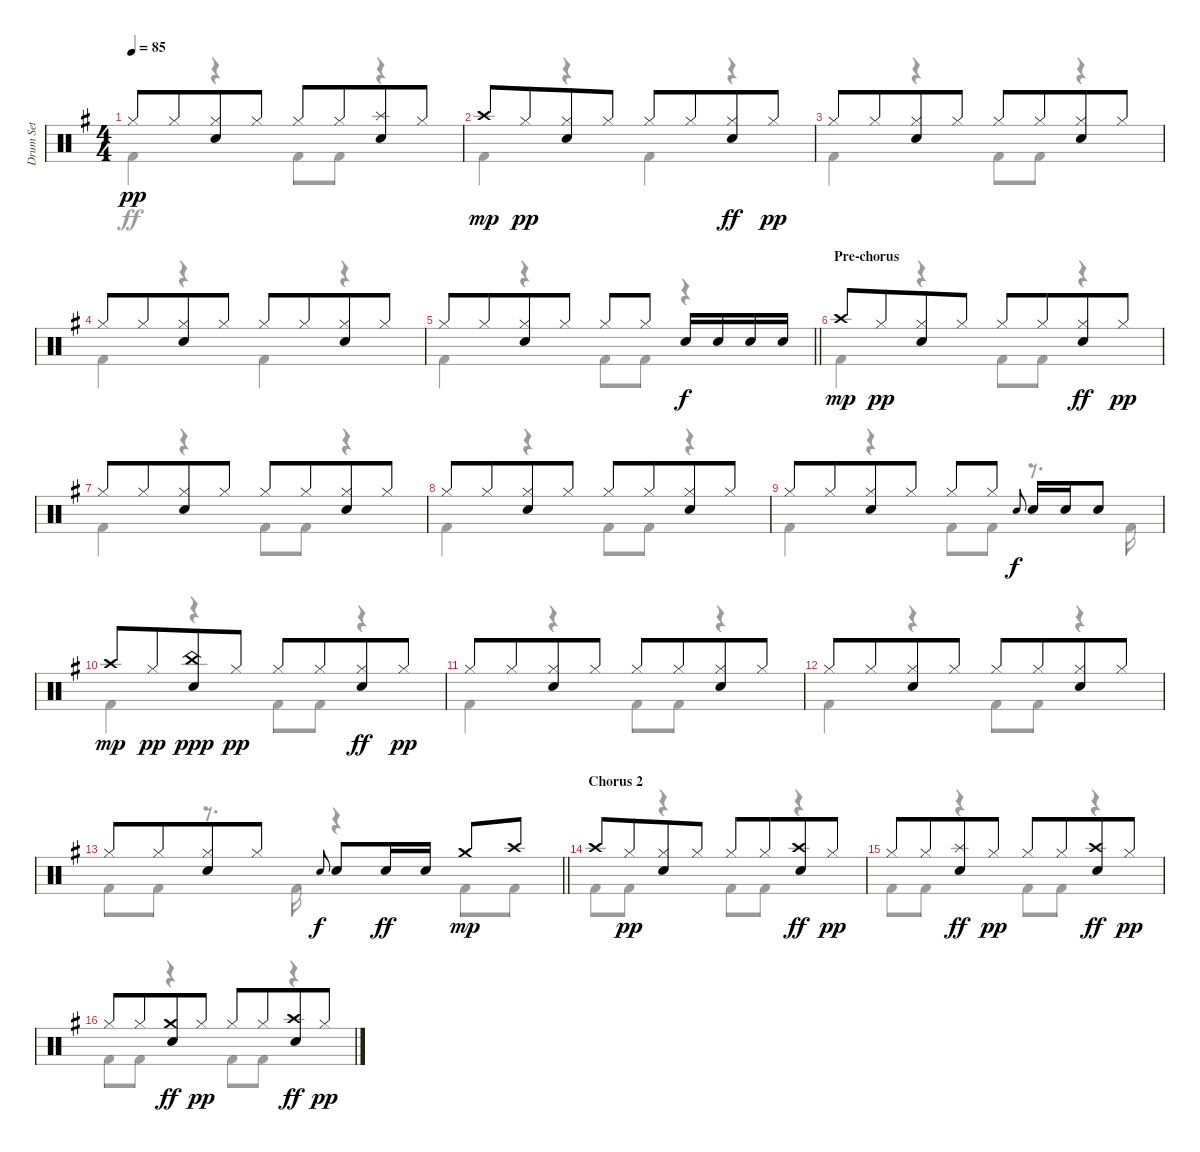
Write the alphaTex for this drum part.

\track ("Drum Set" "Drum Set") {instrument percussion}
\staff {score}
\articulation defaults
\voice
\ts (4 4)
\tempo 85
\clef neutral
\ks g "Hi-Hat (closed)".8{dy pp} "Hi-Hat (closed)".8{beam merge}
("Hi-Hat (closed)" "Electric Snare (hit)").8 "Hi-Hat (closed)".8 "Hi-Hat (closed)".8 "Hi-Hat (closed)".8{beam merge} ("Splash (hit)" "Electric Snare (hit)").8 "Hi-Hat (closed)".8 |
"Crash high (hit)".8{dy mp} "Hi-Hat (closed)".8{dy pp beam merge} ("Hi-Hat (closed)" "Electric Snare (hit)").8 "Hi-Hat (closed)".8 "Hi-Hat (closed)".8 "Hi-Hat (closed)".8{beam merge} ("Hi-Hat (closed)" "Electric Snare (hit)").8{dy ff} "Hi-Hat (closed)".8{dy pp} |
"Hi-Hat (closed)".8 "Hi-Hat (closed)".8{beam merge} ("Hi-Hat (closed)" "Electric Snare (hit)").8 "Hi-Hat (closed)".8 "Hi-Hat (closed)".8 "Hi-Hat (closed)".8{beam merge} ("Hi-Hat (closed)" "Electric Snare (hit)").8 "Hi-Hat (closed)".8 |
"Hi-Hat (closed)".8 "Hi-Hat (closed)".8{beam merge} ("Hi-Hat (closed)" "Electric Snare (hit)").8 "Hi-Hat (closed)".8 "Hi-Hat (closed)".8 "Hi-Hat (closed)".8{beam merge} ("Hi-Hat (closed)" "Electric Snare (hit)").8 "Hi-Hat (closed)".8 |
\barLineRight lightlight "Hi-Hat (closed)".8 "Hi-Hat (closed)".8{beam merge}
("Hi-Hat (closed)" "Electric Snare (hit)").8 "Hi-Hat (closed)".8 "Hi-Hat (closed)".8 "Hi-Hat (closed)".8 "Electric Snare (hit)".16{dy f} "Electric Snare (hit)".16 "Electric Snare (hit)".16 "Electric Snare (hit)".16 |
\section ("" "Pre-chorus")
"Crash high (hit)".8{dy mp} "Hi-Hat (closed)".8{dy pp beam merge} ("Hi-Hat (closed)" "Electric Snare (hit)").8 "Hi-Hat (closed)".8 "Hi-Hat (closed)".8 "Hi-Hat (closed)".8{beam merge} ("Hi-Hat (closed)" "Electric Snare (hit)").8{dy ff} "Hi-Hat (closed)".8{dy pp} |
"Hi-Hat (closed)".8 "Hi-Hat (closed)".8{beam merge} ("Hi-Hat (closed)" "Electric Snare (hit)").8 "Hi-Hat (closed)".8 "Hi-Hat (closed)".8 "Hi-Hat (closed)".8{beam merge} ("Hi-Hat (closed)" "Electric Snare (hit)").8 "Hi-Hat (closed)".8 |
"Hi-Hat (closed)".8 "Hi-Hat (closed)".8{beam merge} ("Hi-Hat (closed)" "Electric Snare (hit)").8 "Hi-Hat (closed)".8 "Hi-Hat (closed)".8 "Hi-Hat (closed)".8{beam merge} ("Hi-Hat (closed)" "Electric Snare (hit)").8 "Hi-Hat (closed)".8 |
"Hi-Hat (closed)".8 "Hi-Hat (closed)".8{beam merge} ("Hi-Hat (closed)" "Electric Snare (hit)").8 "Hi-Hat (closed)".8 "Hi-Hat (closed)".8 "Hi-Hat (closed)".8 "Electric Snare (hit)".8{gr onbeat dy f} "Electric Snare (hit)".16 "Electric Snare (hit)".16 "Electric Snare (hit)".8 |
"Crash high (hit)".8{dy mp} "Hi-Hat (closed)".8{dy pp beam merge} ("China (hit)" "Electric Snare (hit)").8{dy ppp} "Hi-Hat (closed)".8{dy pp} "Hi-Hat (closed)".8 "Hi-Hat (closed)".8{beam merge} ("Hi-Hat (closed)" "Electric Snare (hit)").8{dy ff} "Hi-Hat (closed)".8{dy pp} |
"Hi-Hat (closed)".8 "Hi-Hat (closed)".8{beam merge} ("Hi-Hat (closed)" "Electric Snare (hit)").8 "Hi-Hat (closed)".8 "Hi-Hat (closed)".8 "Hi-Hat (closed)".8{beam merge} ("Hi-Hat (closed)" "Electric Snare (hit)").8 "Hi-Hat (closed)".8 |
"Hi-Hat (closed)".8 "Hi-Hat (closed)".8{beam merge} ("Hi-Hat (closed)" "Electric Snare (hit)").8 "Hi-Hat (closed)".8 "Hi-Hat (closed)".8 "Hi-Hat (closed)".8{beam merge} ("Hi-Hat (closed)" "Electric Snare (hit)").8 "Hi-Hat (closed)".8 |
\barLineRight lightlight "Hi-Hat (closed)".8 "Hi-Hat (closed)".8{beam merge}
("Hi-Hat (closed)" "Electric Snare (hit)").8 "Hi-Hat (closed)".8 "Electric Snare (hit)".8{gr onbeat dy f} "Electric Snare (hit)".8 "Electric Snare (hit)".16{dy ff} "Electric Snare (hit)".16 "Crash medium (hit)".8{dy mp} "Crash high (hit)".8 |
\section ("" "Chorus 2")
"Crash high (hit)".8 "Hi-Hat (closed)".8{dy pp beam merge} ("Hi-Hat (closed)" "Electric Snare (hit)").8 "Hi-Hat (closed)".8 "Hi-Hat (closed)".8 "Hi-Hat (closed)".8{beam merge} ("Crash high (hit)" "Electric Snare (hit)").8{dy ff} "Hi-Hat (closed)".8{dy pp} |
"Hi-Hat (closed)".8 "Hi-Hat (closed)".8{beam merge} ("Splash (hit)" "Electric Snare (hit)").8{dy ff} "Hi-Hat (closed)".8{dy pp} "Hi-Hat (closed)".8 "Hi-Hat (closed)".8{beam merge} ("Crash high (hit)" "Electric Snare (hit)").8{dy ff} "Hi-Hat (closed)".8{dy pp} |
"Hi-Hat (closed)".8 "Hi-Hat (closed)".8{beam merge} ("Crash medium (hit)" "Electric Snare (hit)").8{dy ff} "Hi-Hat (closed)".8{dy pp} "Hi-Hat (closed)".8 "Hi-Hat (closed)".8{beam merge} ("Crash high (hit)" "Electric Snare (hit)").8{dy ff} "Hi-Hat (closed)".8{dy pp}
\voice
\clef neutral
\ottava regular
\simile none
\ks g "Kick (hit) 2".4{dy ff}
r.4 "Kick (hit) 2".8 "Kick (hit) 2".8 r.4 |
"Kick (hit) 2".4 r.4 "Kick (hit) 2".4 r.4 |
"Kick (hit) 2".4 r.4 "Kick (hit) 2".8 "Kick (hit) 2".8 r.4 |
"Kick (hit) 2".4 r.4 "Kick (hit) 2".4 r.4 |
\barLineRight lightlight "Kick (hit) 2".4
r.4 "Kick (hit) 2".8 "Kick (hit) 2".8 r.4 |
"Kick (hit) 2".4 r.4 "Kick (hit) 2".8 "Kick (hit) 2".8 r.4 |
"Kick (hit) 2".4 r.4 "Kick (hit) 2".8 "Kick (hit) 2".8 r.4 |
"Kick (hit) 2".4 r.4 "Kick (hit) 2".8 "Kick (hit) 2".8 r.4 |
"Kick (hit) 2".4 r.4 "Kick (hit) 2".8 "Kick (hit) 2".8 r.8{d} "Kick (hit) 2".16 |
"Kick (hit) 2".4 r.4 "Kick (hit) 2".8 "Kick (hit) 2".8 r.4 |
"Kick (hit) 2".4 r.4 "Kick (hit) 2".8 "Kick (hit) 2".8 r.4 |
"Kick (hit) 2".4 r.4 "Kick (hit) 2".8 "Kick (hit) 2".8 r.4 |
\barLineRight lightlight "Kick (hit) 2".8 "Kick (hit) 2".8
r.8{d} "Kick (hit) 2".16 r.4 "Kick (hit) 2".8 "Kick (hit) 2".8 |
"Kick (hit) 2".8 "Kick (hit) 2".8 r.4 "Kick (hit) 2".8 "Kick (hit) 2".8 r.4 |
"Kick (hit) 2".8 "Kick (hit) 2".8 r.4 "Kick (hit) 2".8 "Kick (hit) 2".8 r.4 |
"Kick (hit) 2".8 "Kick (hit) 2".8 r.4 "Kick (hit) 2".8 "Kick (hit) 2".8 r.4
